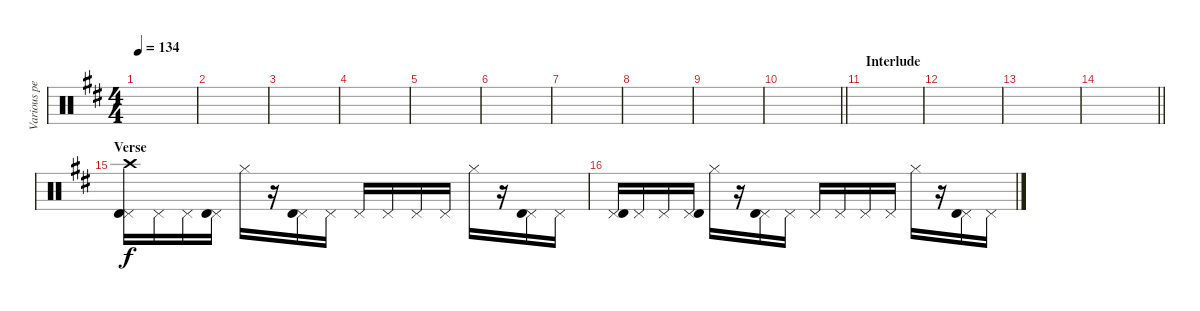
\track ("Various percussion" "Various pe") {instrument percussion}
\staff {score}
\articulation defaults
\ts (4 4)
\tempo 134
\clef neutral
\ks bminor
|
|
|
|
|
|
|
|
|
\barLineRight lightlight
|
\section ("" "Interlude")
|
|
|
\barLineRight lightlight
|
\section ("" "Verse")
("Pedal Hi-Hat (hit)" "Timbale high (hit)" "Crash high (hit)").16 "Pedal Hi-Hat (hit)".16 "Pedal Hi-Hat (hit)".16 ("Pedal Hi-Hat (hit)" "Timbale high (hit)").16 "Hi-Hat (closed)".16 r.16 ("Pedal Hi-Hat (hit)" "Timbale high (hit)").16 "Pedal Hi-Hat (hit)".16 "Pedal Hi-Hat (hit)".16 "Pedal Hi-Hat (hit)".16 "Pedal Hi-Hat (hit)".16 "Pedal Hi-Hat (hit)".16 "Hi-Hat (closed)".16 r.16 ("Pedal Hi-Hat (hit)" "Timbale high (hit)").16 "Pedal Hi-Hat (hit)".16 |
("Pedal Hi-Hat (hit)" "Timbale high (hit)").16 "Pedal Hi-Hat (hit)".16 "Pedal Hi-Hat (hit)".16 ("Pedal Hi-Hat (hit)" "Timbale high (hit)").16 "Hi-Hat (closed)".16 r.16 ("Pedal Hi-Hat (hit)" "Timbale high (hit)").16 "Pedal Hi-Hat (hit)".16 "Pedal Hi-Hat (hit)".16 "Pedal Hi-Hat (hit)".16 "Pedal Hi-Hat (hit)".16 "Pedal Hi-Hat (hit)".16 "Hi-Hat (closed)".16 r.16 ("Pedal Hi-Hat (hit)" "Timbale high (hit)").16 "Pedal Hi-Hat (hit)".16
